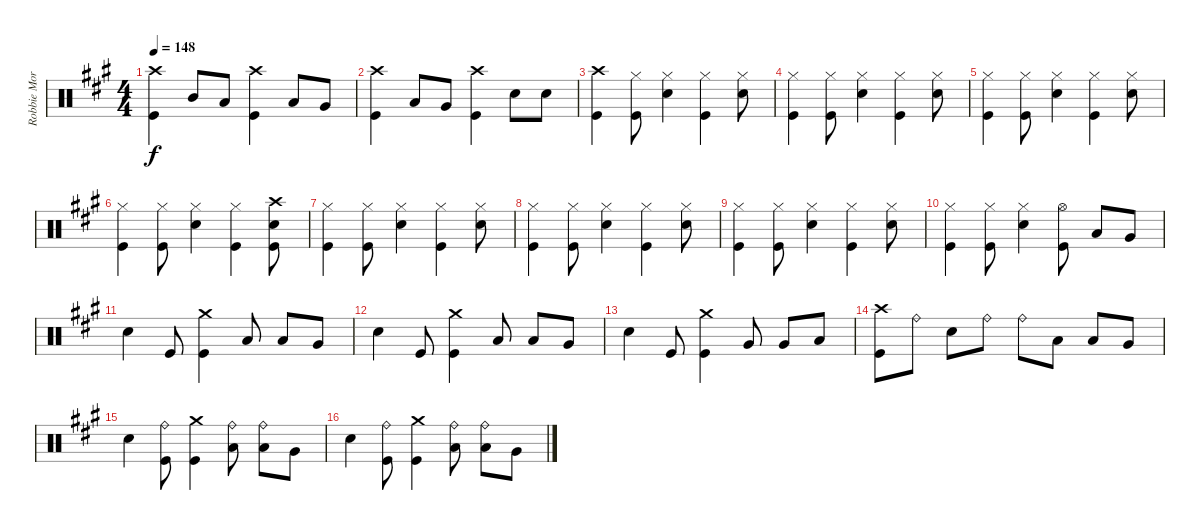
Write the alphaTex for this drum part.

\track ("Robbie Morris Drums" "Robbie Mor") {instrument percussion}
\staff {score}
\articulation defaults
\ts (4 4)
\tempo 148
\clef neutral
\ks a
("Crash high (hit)" "Kick (hit)").4{dy f} "Mid Tom (hit)".8 "Low Tom (hit)".8 ("Crash high (hit)" "Kick (hit)").4 "Low Tom (hit)".8 "Very Low Tom (hit)".8 |
("Crash high (hit)" "Kick (hit)").4 "Low Tom (hit)".8 "Very Low Tom (hit)".8 ("Crash high (hit)" "Kick (hit)").4 "Snare (hit) 2".8 "Snare (hit) 2".8 |
("Crash high (hit)" "Kick (hit)").4 ("Hi-Hat (closed)" "Kick (hit)").8 ("Hi-Hat (closed)" "Snare (hit) 2").4 ("Hi-Hat (closed)" "Kick (hit)").4 ("Hi-Hat (closed)" "Snare (hit) 2").8 |
("Hi-Hat (closed)" "Kick (hit)").4 ("Hi-Hat (closed)" "Kick (hit)").8 ("Hi-Hat (closed)" "Snare (hit) 2").4 ("Hi-Hat (closed)" "Kick (hit)").4 ("Hi-Hat (closed)" "Snare (hit) 2").8 |
("Hi-Hat (closed)" "Kick (hit)").4 ("Hi-Hat (closed)" "Kick (hit)").8 ("Hi-Hat (closed)" "Snare (hit) 2").4 ("Hi-Hat (closed)" "Kick (hit)").4 ("Hi-Hat (closed)" "Snare (hit) 2").8 |
("Hi-Hat (closed)" "Kick (hit)").4 ("Hi-Hat (closed)" "Kick (hit)").8 ("Hi-Hat (closed)" "Snare (hit) 2").4 ("Hi-Hat (closed)" "Kick (hit)").4 ("Crash high (hit)" "Snare (hit) 2" "Kick (hit)").8 |
("Hi-Hat (closed)" "Kick (hit)").4 ("Hi-Hat (closed)" "Kick (hit)").8 ("Hi-Hat (closed)" "Snare (hit) 2").4 ("Hi-Hat (closed)" "Kick (hit)").4 ("Hi-Hat (closed)" "Snare (hit) 2").8 |
("Hi-Hat (closed)" "Kick (hit)").4 ("Hi-Hat (closed)" "Kick (hit)").8 ("Hi-Hat (closed)" "Snare (hit) 2").4 ("Hi-Hat (closed)" "Kick (hit)").4 ("Hi-Hat (closed)" "Snare (hit) 2").8 |
("Hi-Hat (closed)" "Kick (hit)").4 ("Hi-Hat (closed)" "Kick (hit)").8 ("Hi-Hat (closed)" "Snare (hit) 2").4 ("Hi-Hat (closed)" "Kick (hit)").4 ("Hi-Hat (closed)" "Snare (hit) 2").8 |
("Hi-Hat (closed)" "Kick (hit)").4 ("Hi-Hat (closed)" "Kick (hit)").8 ("Hi-Hat (closed)" "Snare (hit) 2").4 ("Hi-Hat (open)" "Kick (hit)").8 "Low Tom (hit)".8 "Very Low Tom (hit)".8 |
"Snare (hit) 2".4 "Kick (hit)".8 ("Crash medium (hit)" "Kick (hit)").4 "Low Tom (hit)".8 "Low Tom (hit)".8 "Very Low Tom (hit)".8 |
"Snare (hit) 2".4 "Kick (hit)".8 ("Crash medium (hit)" "Kick (hit)").4 "Low Tom (hit)".8 "Low Tom (hit)".8 "Very Low Tom (hit)".8 |
"Snare (hit) 2".4 "Kick (hit)".8 ("Crash medium (hit)" "Kick (hit)").4 "Very Low Tom (hit)".8 "Very Low Tom (hit)".8 "Low Floor Tom (hit)".8 |
("Crash high (hit)" "Kick (hit)").8 "Ride (bell)".8 "Snare (hit) 2".8 "Ride (bell)".8 "Ride (bell)".8 "Low Tom (hit)".8 "Low Tom (hit)".8 "Very Low Tom (hit)".8 |
"Snare (hit) 2".4 ("Ride (bell)" "Kick (hit)").8 ("Crash medium (hit)" "Kick (hit)").4 ("Ride (bell)" "Low Tom (hit)").8 ("Ride (bell)" "Low Tom (hit)").8 "Very Low Tom (hit)".8 |
"Snare (hit) 2".4 ("Ride (bell)" "Kick (hit)").8 ("Crash medium (hit)" "Kick (hit)").4 ("Ride (bell)" "Low Tom (hit)").8 ("Ride (bell)" "Low Tom (hit)").8 "Very Low Tom (hit)".8
